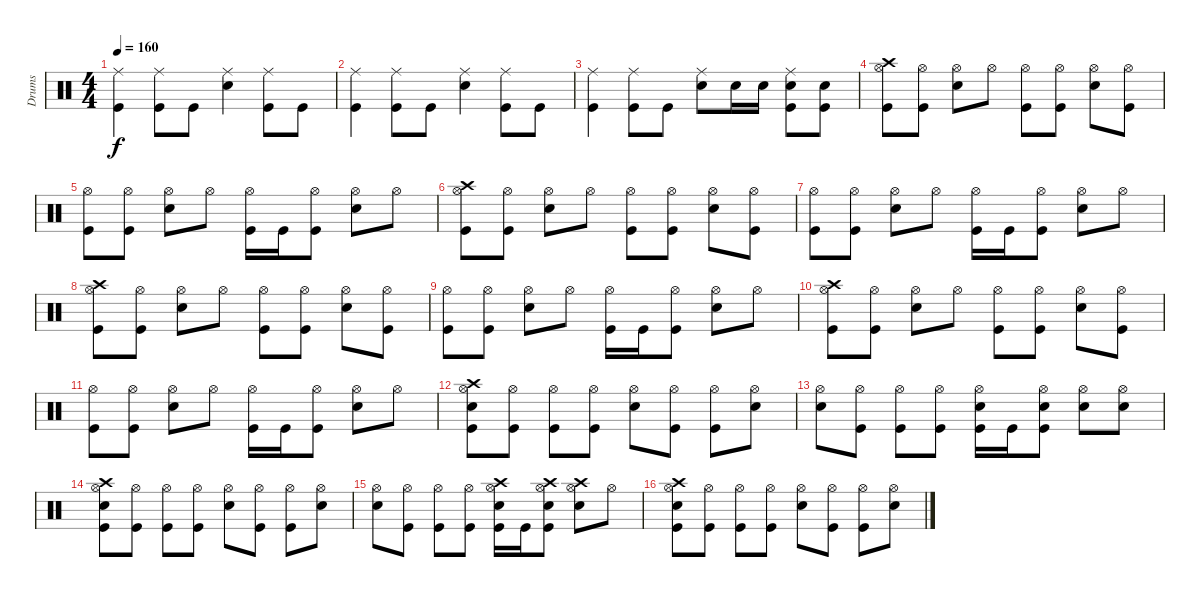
\track ("Drums" "Drums") {instrument percussion}
\staff {score}
\articulation defaults
\ts (4 4)
\tempo 160
\clef neutral
\ks c
("Ride (middle)" "Kick (hit)").4{dy f} ("Ride (middle)" "Kick (hit)").8 "Kick (hit)".8 ("Ride (middle)" "Snare (hit) 2").4 ("Ride (middle)" "Kick (hit)").8 "Kick (hit)".8 |
("Ride (middle)" "Kick (hit)").4 ("Ride (middle)" "Kick (hit)").8 "Kick (hit)".8 ("Ride (middle)" "Snare (hit) 2").4 ("Ride (middle)" "Kick (hit)").8 "Kick (hit)".8 |
("Ride (middle)" "Kick (hit)").4 ("Ride (middle)" "Kick (hit)").8 "Kick (hit)".8 ("Ride (middle)" "Snare (hit) 2").8 "Snare (hit) 2".16 "Snare (hit) 2".16 ("Snare (hit) 2" "Ride (middle)" "Kick (hit)").8 ("Snare (hit) 2" "Kick (hit)").8 |
("Crash high (hit)" "Hi-Hat (open)" "Kick (hit)").8 ("Hi-Hat (open)" "Kick (hit)").8 ("Hi-Hat (open)" "Snare (hit) 2").8 "Hi-Hat (open)".8 ("Hi-Hat (open)" "Kick (hit)").8 ("Hi-Hat (open)" "Kick (hit)").8 ("Hi-Hat (open)" "Snare (hit) 2").8 ("Kick (hit)" "Hi-Hat (open)").8 |
("Hi-Hat (open)" "Kick (hit)").8 ("Hi-Hat (open)" "Kick (hit)").8 ("Hi-Hat (open)" "Snare (hit) 2").8 "Hi-Hat (open)".8 ("Hi-Hat (open)" "Kick (hit)").16 "Kick (hit)".16 ("Hi-Hat (open)" "Kick (hit)").8 ("Hi-Hat (open)" "Snare (hit) 2").8 "Hi-Hat (open)".8 |
("Crash high (hit)" "Hi-Hat (open)" "Kick (hit)").8 ("Hi-Hat (open)" "Kick (hit)").8 ("Hi-Hat (open)" "Snare (hit) 2").8 "Hi-Hat (open)".8 ("Hi-Hat (open)" "Kick (hit)").8 ("Hi-Hat (open)" "Kick (hit)").8 ("Hi-Hat (open)" "Snare (hit) 2").8 ("Kick (hit)" "Hi-Hat (open)").8 |
("Hi-Hat (open)" "Kick (hit)").8 ("Hi-Hat (open)" "Kick (hit)").8 ("Hi-Hat (open)" "Snare (hit) 2").8 "Hi-Hat (open)".8 ("Hi-Hat (open)" "Kick (hit)").16 "Kick (hit)".16 ("Hi-Hat (open)" "Kick (hit)").8 ("Hi-Hat (open)" "Snare (hit) 2").8 "Hi-Hat (open)".8 |
("Crash high (hit)" "Hi-Hat (open)" "Kick (hit)").8 ("Hi-Hat (open)" "Kick (hit)").8 ("Hi-Hat (open)" "Snare (hit) 2").8 "Hi-Hat (open)".8 ("Hi-Hat (open)" "Kick (hit)").8 ("Hi-Hat (open)" "Kick (hit)").8 ("Hi-Hat (open)" "Snare (hit) 2").8 ("Kick (hit)" "Hi-Hat (open)").8 |
("Hi-Hat (open)" "Kick (hit)").8 ("Hi-Hat (open)" "Kick (hit)").8 ("Hi-Hat (open)" "Snare (hit) 2").8 "Hi-Hat (open)".8 ("Hi-Hat (open)" "Kick (hit)").16 "Kick (hit)".16 ("Hi-Hat (open)" "Kick (hit)").8 ("Hi-Hat (open)" "Snare (hit) 2").8 "Hi-Hat (open)".8 |
("Crash high (hit)" "Hi-Hat (open)" "Kick (hit)").8 ("Hi-Hat (open)" "Kick (hit)").8 ("Hi-Hat (open)" "Snare (hit) 2").8 "Hi-Hat (open)".8 ("Hi-Hat (open)" "Kick (hit)").8 ("Hi-Hat (open)" "Kick (hit)").8 ("Hi-Hat (open)" "Snare (hit) 2").8 ("Kick (hit)" "Hi-Hat (open)").8 |
("Hi-Hat (open)" "Kick (hit)").8 ("Hi-Hat (open)" "Kick (hit)").8 ("Hi-Hat (open)" "Snare (hit) 2").8 "Hi-Hat (open)".8 ("Hi-Hat (open)" "Kick (hit)").16 "Kick (hit)".16 ("Hi-Hat (open)" "Kick (hit)").8 ("Hi-Hat (open)" "Snare (hit) 2").8 "Hi-Hat (open)".8 |
("Snare (hit) 2" "Crash high (hit)" "Hi-Hat (open)" "Kick (hit)").8 ("Hi-Hat (open)" "Kick (hit)").8 ("Kick (hit)" "Hi-Hat (open)").8 ("Kick (hit)" "Hi-Hat (open)").8 ("Snare (hit) 2" "Hi-Hat (open)").8 ("Hi-Hat (open)" "Kick (hit)").8 ("Kick (hit)" "Hi-Hat (open)").8 ("Snare (hit) 2" "Hi-Hat (open)").8 |
("Snare (hit) 2" "Hi-Hat (open)").8 ("Hi-Hat (open)" "Kick (hit)").8 ("Kick (hit)" "Hi-Hat (open)").8 ("Kick (hit)" "Hi-Hat (open)").8 ("Snare (hit) 2" "Hi-Hat (open)" "Kick (hit)").16 "Kick (hit)".16 ("Snare (hit) 2" "Hi-Hat (open)" "Kick (hit)").8 ("Hi-Hat (open)" "Snare (hit) 2").8 ("Snare (hit) 2" "Hi-Hat (open)").8 |
("Snare (hit) 2" "Crash high (hit)" "Hi-Hat (open)" "Kick (hit)").8 ("Hi-Hat (open)" "Kick (hit)").8 ("Kick (hit)" "Hi-Hat (open)").8 ("Kick (hit)" "Hi-Hat (open)").8 ("Snare (hit) 2" "Hi-Hat (open)").8 ("Hi-Hat (open)" "Kick (hit)").8 ("Kick (hit)" "Hi-Hat (open)").8 ("Snare (hit) 2" "Hi-Hat (open)").8 |
("Snare (hit) 2" "Hi-Hat (open)").8 ("Hi-Hat (open)" "Kick (hit)").8 ("Kick (hit)" "Hi-Hat (open)").8 ("Kick (hit)" "Hi-Hat (open)").8 ("Crash high (hit)" "Snare (hit) 2" "Hi-Hat (open)" "Kick (hit)").16 "Kick (hit)".16 ("Crash high (hit)" "Snare (hit) 2" "Hi-Hat (open)" "Kick (hit)").8 ("Crash high (hit)" "Hi-Hat (open)" "Snare (hit) 2").8 "Hi-Hat (open)".8 |
("Snare (hit) 2" "Crash high (hit)" "Hi-Hat (open)" "Kick (hit)").8 ("Hi-Hat (open)" "Kick (hit)").8 ("Kick (hit)" "Hi-Hat (open)").8 ("Kick (hit)" "Hi-Hat (open)").8 ("Snare (hit) 2" "Hi-Hat (open)").8 ("Hi-Hat (open)" "Kick (hit)").8 ("Kick (hit)" "Hi-Hat (open)").8 ("Snare (hit) 2" "Hi-Hat (open)").8
